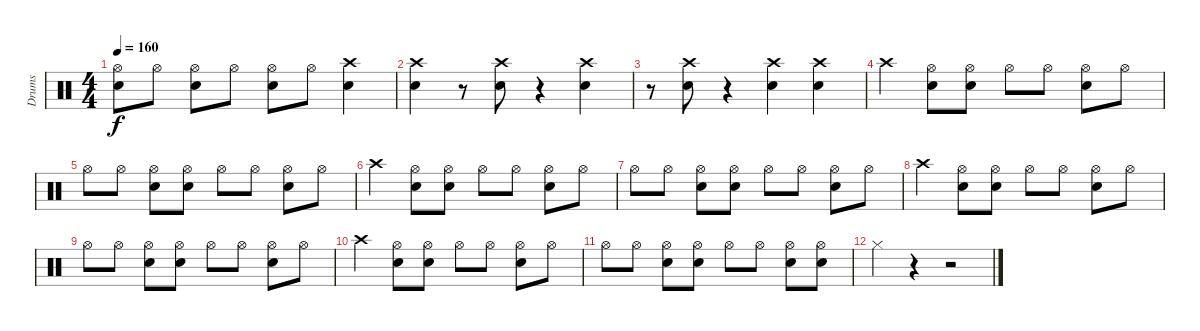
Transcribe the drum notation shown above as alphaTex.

\track ("Drums" "Drums") {instrument percussion}
\staff {score}
\articulation defaults
\ts (4 4)
\tempo 160
\clef neutral
\ks c
("Hi-Hat (open)" "Snare (hit) 2").8{dy f} "Hi-Hat (open)".8 ("Hi-Hat (open)" "Snare (hit) 2").8 "Hi-Hat (open)".8 ("Hi-Hat (open)" "Snare (hit) 2").8 "Hi-Hat (open)".8 ("Crash high (hit)" "Snare (hit) 2").4 |
("Crash high (hit)" "Snare (hit) 2").4 r.8 ("Crash high (hit)" "Snare (hit) 2").8 r.4 ("Crash high (hit)" "Snare (hit) 2").4 |
r.8 ("Crash high (hit)" "Snare (hit) 2").8 r.4 ("Crash high (hit)" "Snare (hit) 2").4 ("Crash high (hit)" "Snare (hit) 2").4 |
"Crash high (hit)".4 ("Hi-Hat (open)" "Snare (hit) 2").8 ("Hi-Hat (open)" "Snare (hit) 2").8 "Hi-Hat (open)".8 "Hi-Hat (open)".8 ("Hi-Hat (open)" "Snare (hit) 2").8 "Hi-Hat (open)".8 |
"Hi-Hat (open)".8 "Hi-Hat (open)".8 ("Hi-Hat (open)" "Snare (hit) 2").8 ("Hi-Hat (open)" "Snare (hit) 2").8 "Hi-Hat (open)".8 "Hi-Hat (open)".8 ("Hi-Hat (open)" "Snare (hit) 2").8 "Hi-Hat (open)".8 |
"Crash high (hit)".4 ("Hi-Hat (open)" "Snare (hit) 2").8 ("Hi-Hat (open)" "Snare (hit) 2").8 "Hi-Hat (open)".8 "Hi-Hat (open)".8 ("Hi-Hat (open)" "Snare (hit) 2").8 "Hi-Hat (open)".8 |
"Hi-Hat (open)".8 "Hi-Hat (open)".8 ("Hi-Hat (open)" "Snare (hit) 2").8 ("Hi-Hat (open)" "Snare (hit) 2").8 "Hi-Hat (open)".8 "Hi-Hat (open)".8 ("Hi-Hat (open)" "Snare (hit) 2").8 "Hi-Hat (open)".8 |
"Crash high (hit)".4 ("Hi-Hat (open)" "Snare (hit) 2").8 ("Hi-Hat (open)" "Snare (hit) 2").8 "Hi-Hat (open)".8 "Hi-Hat (open)".8 ("Hi-Hat (open)" "Snare (hit) 2").8 "Hi-Hat (open)".8 |
"Hi-Hat (open)".8 "Hi-Hat (open)".8 ("Hi-Hat (open)" "Snare (hit) 2").8 ("Hi-Hat (open)" "Snare (hit) 2").8 "Hi-Hat (open)".8 "Hi-Hat (open)".8 ("Hi-Hat (open)" "Snare (hit) 2").8 "Hi-Hat (open)".8 |
"Crash high (hit)".4 ("Hi-Hat (open)" "Snare (hit) 2").8 ("Hi-Hat (open)" "Snare (hit) 2").8 "Hi-Hat (open)".8 "Hi-Hat (open)".8 ("Hi-Hat (open)" "Snare (hit) 2").8 "Hi-Hat (open)".8 |
"Hi-Hat (open)".8 "Hi-Hat (open)".8 ("Hi-Hat (open)" "Snare (hit) 2").8 ("Hi-Hat (open)" "Snare (hit) 2").8 "Hi-Hat (open)".8 "Hi-Hat (open)".8 ("Hi-Hat (open)" "Snare (hit) 2").8 ("Hi-Hat (open)" "Snare (hit) 2").8 |
"Hi-Hat (closed)".4 r.4 r.2
